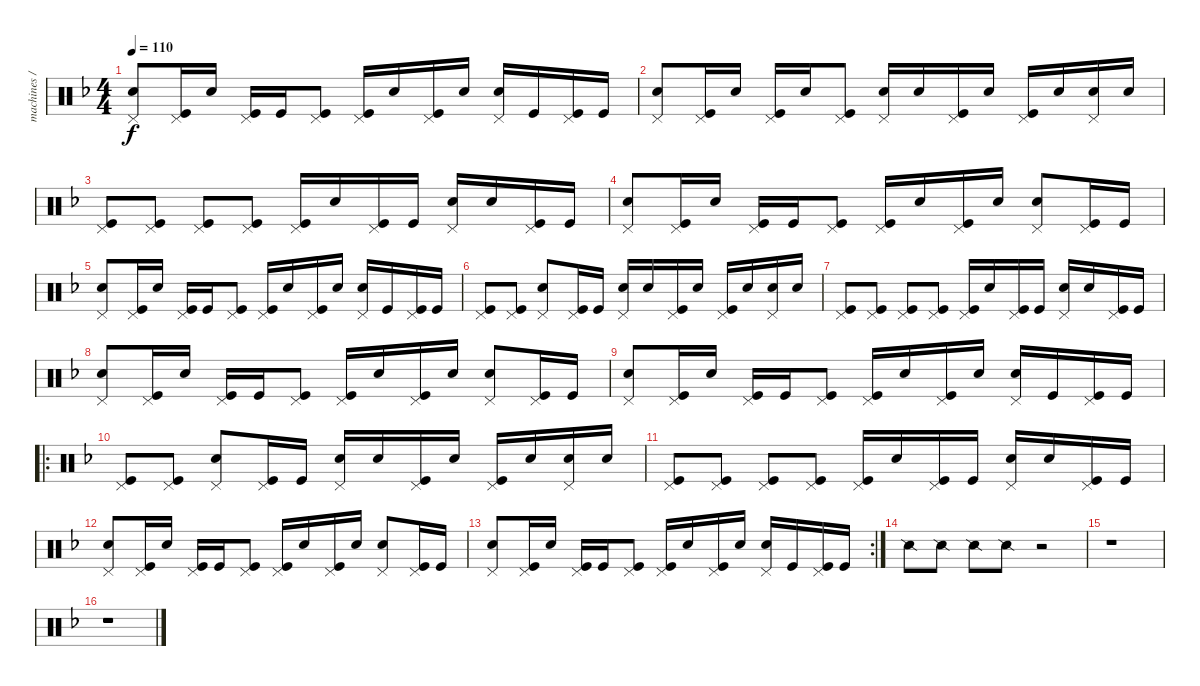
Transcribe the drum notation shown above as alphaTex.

\track ("machines / drum" "machines /") {instrument percussion}
\staff {score}
\articulation defaults
\ts (4 4)
\tempo 110
\clef neutral
\ks f
("Pedal Hi-Hat (hit)" "Electric Snare (hit)").8{dy f} ("Pedal Hi-Hat (hit)" "Kick (hit)").16 "Electric Snare (hit)".16 ("Pedal Hi-Hat (hit)" "Kick (hit)").16 "Kick (hit)".16 ("Pedal Hi-Hat (hit)" "Kick (hit)").8 ("Pedal Hi-Hat (hit)" "Kick (hit)").16 "Electric Snare (hit)".16 ("Pedal Hi-Hat (hit)" "Kick (hit)").16 "Electric Snare (hit)".16 ("Pedal Hi-Hat (hit)" "Electric Snare (hit)").16 "Kick (hit)".16 ("Pedal Hi-Hat (hit)" "Kick (hit)").16 "Kick (hit)".16 |
("Pedal Hi-Hat (hit)" "Electric Snare (hit)").8 ("Pedal Hi-Hat (hit)" "Kick (hit)").16 "Electric Snare (hit)".16 ("Pedal Hi-Hat (hit)" "Kick (hit)").16 "Electric Snare (hit)".16 ("Pedal Hi-Hat (hit)" "Kick (hit)").8 ("Pedal Hi-Hat (hit)" "Electric Snare (hit)").16 "Electric Snare (hit)".16 ("Pedal Hi-Hat (hit)" "Kick (hit)").16 "Electric Snare (hit)".16 ("Pedal Hi-Hat (hit)" "Kick (hit)").16 "Electric Snare (hit)".16 ("Pedal Hi-Hat (hit)" "Electric Snare (hit)").16 "Electric Snare (hit)".16 |
("Pedal Hi-Hat (hit)" "Kick (hit)").8 ("Pedal Hi-Hat (hit)" "Kick (hit)").8 ("Pedal Hi-Hat (hit)" "Kick (hit)").8 ("Pedal Hi-Hat (hit)" "Kick (hit)").8 ("Pedal Hi-Hat (hit)" "Kick (hit)").16 "Electric Snare (hit)".16 ("Pedal Hi-Hat (hit)" "Kick (hit)").16 "Kick (hit)".16 ("Pedal Hi-Hat (hit)" "Electric Snare (hit)").16 "Electric Snare (hit)".16 ("Pedal Hi-Hat (hit)" "Kick (hit)").16 "Kick (hit)".16 |
("Pedal Hi-Hat (hit)" "Electric Snare (hit)").8 ("Pedal Hi-Hat (hit)" "Kick (hit)").16 "Electric Snare (hit)".16 ("Pedal Hi-Hat (hit)" "Kick (hit)").16 "Kick (hit)".16 ("Pedal Hi-Hat (hit)" "Kick (hit)").8 ("Pedal Hi-Hat (hit)" "Kick (hit)").16 "Electric Snare (hit)".16 ("Pedal Hi-Hat (hit)" "Kick (hit)").16 "Electric Snare (hit)".16 ("Pedal Hi-Hat (hit)" "Electric Snare (hit)").8 ("Pedal Hi-Hat (hit)" "Kick (hit)").16 "Kick (hit)".16 |
("Pedal Hi-Hat (hit)" "Electric Snare (hit)").8 ("Pedal Hi-Hat (hit)" "Kick (hit)").16 "Electric Snare (hit)".16 ("Pedal Hi-Hat (hit)" "Kick (hit)").16 "Kick (hit)".16 ("Pedal Hi-Hat (hit)" "Kick (hit)").8 ("Pedal Hi-Hat (hit)" "Kick (hit)").16 "Electric Snare (hit)".16 ("Pedal Hi-Hat (hit)" "Kick (hit)").16 "Electric Snare (hit)".16 ("Pedal Hi-Hat (hit)" "Electric Snare (hit)").16 "Kick (hit)".16 ("Pedal Hi-Hat (hit)" "Kick (hit)").16 "Kick (hit)".16 |
("Pedal Hi-Hat (hit)" "Kick (hit)").8 ("Pedal Hi-Hat (hit)" "Kick (hit)").8 ("Pedal Hi-Hat (hit)" "Electric Snare (hit)").8 ("Pedal Hi-Hat (hit)" "Kick (hit)").16 "Kick (hit)".16 ("Pedal Hi-Hat (hit)" "Electric Snare (hit)").16 "Electric Snare (hit)".16 ("Pedal Hi-Hat (hit)" "Kick (hit)").16 "Electric Snare (hit)".16 ("Pedal Hi-Hat (hit)" "Kick (hit)").16 "Electric Snare (hit)".16 ("Pedal Hi-Hat (hit)" "Electric Snare (hit)").16 "Electric Snare (hit)".16 |
("Pedal Hi-Hat (hit)" "Kick (hit)").8 ("Pedal Hi-Hat (hit)" "Kick (hit)").8 ("Pedal Hi-Hat (hit)" "Kick (hit)").8 ("Pedal Hi-Hat (hit)" "Kick (hit)").8 ("Pedal Hi-Hat (hit)" "Kick (hit)").16 "Electric Snare (hit)".16 ("Pedal Hi-Hat (hit)" "Kick (hit)").16 "Kick (hit)".16 ("Pedal Hi-Hat (hit)" "Electric Snare (hit)").16 "Electric Snare (hit)".16 ("Pedal Hi-Hat (hit)" "Kick (hit)").16 "Kick (hit)".16 |
("Pedal Hi-Hat (hit)" "Electric Snare (hit)").8 ("Pedal Hi-Hat (hit)" "Kick (hit)").16 "Electric Snare (hit)".16 ("Pedal Hi-Hat (hit)" "Kick (hit)").16 "Kick (hit)".16 ("Pedal Hi-Hat (hit)" "Kick (hit)").8 ("Pedal Hi-Hat (hit)" "Kick (hit)").16 "Electric Snare (hit)".16 ("Pedal Hi-Hat (hit)" "Kick (hit)").16 "Electric Snare (hit)".16 ("Pedal Hi-Hat (hit)" "Electric Snare (hit)").8 ("Pedal Hi-Hat (hit)" "Kick (hit)").16 "Kick (hit)".16 |
("Pedal Hi-Hat (hit)" "Electric Snare (hit)").8 ("Pedal Hi-Hat (hit)" "Kick (hit)").16 "Electric Snare (hit)".16 ("Pedal Hi-Hat (hit)" "Kick (hit)").16 "Kick (hit)".16 ("Pedal Hi-Hat (hit)" "Kick (hit)").8 ("Pedal Hi-Hat (hit)" "Kick (hit)").16 "Electric Snare (hit)".16 ("Pedal Hi-Hat (hit)" "Kick (hit)").16 "Electric Snare (hit)".16 ("Pedal Hi-Hat (hit)" "Electric Snare (hit)").16 "Kick (hit)".16 ("Pedal Hi-Hat (hit)" "Kick (hit)").16 "Kick (hit)".16 |
\ro
("Pedal Hi-Hat (hit)" "Kick (hit)").8 ("Pedal Hi-Hat (hit)" "Kick (hit)").8 ("Pedal Hi-Hat (hit)" "Electric Snare (hit)").8 ("Pedal Hi-Hat (hit)" "Kick (hit)").16 "Kick (hit)".16 ("Pedal Hi-Hat (hit)" "Electric Snare (hit)").16 "Electric Snare (hit)".16 ("Pedal Hi-Hat (hit)" "Kick (hit)").16 "Electric Snare (hit)".16 ("Pedal Hi-Hat (hit)" "Kick (hit)").16 "Electric Snare (hit)".16 ("Pedal Hi-Hat (hit)" "Electric Snare (hit)").16 "Electric Snare (hit)".16 |
("Pedal Hi-Hat (hit)" "Kick (hit)").8 ("Pedal Hi-Hat (hit)" "Kick (hit)").8 ("Pedal Hi-Hat (hit)" "Kick (hit)").8 ("Pedal Hi-Hat (hit)" "Kick (hit)").8 ("Pedal Hi-Hat (hit)" "Kick (hit)").16 "Electric Snare (hit)".16 ("Pedal Hi-Hat (hit)" "Kick (hit)").16 "Kick (hit)".16 ("Pedal Hi-Hat (hit)" "Electric Snare (hit)").16 "Electric Snare (hit)".16 ("Pedal Hi-Hat (hit)" "Kick (hit)").16 "Kick (hit)".16 |
("Pedal Hi-Hat (hit)" "Electric Snare (hit)").8 ("Pedal Hi-Hat (hit)" "Kick (hit)").16 "Electric Snare (hit)".16 ("Pedal Hi-Hat (hit)" "Kick (hit)").16 "Kick (hit)".16 ("Pedal Hi-Hat (hit)" "Kick (hit)").8 ("Pedal Hi-Hat (hit)" "Kick (hit)").16 "Electric Snare (hit)".16 ("Pedal Hi-Hat (hit)" "Kick (hit)").16 "Electric Snare (hit)".16 ("Pedal Hi-Hat (hit)" "Electric Snare (hit)").8 ("Pedal Hi-Hat (hit)" "Kick (hit)").16 "Kick (hit)".16 |
\rc 2
("Pedal Hi-Hat (hit)" "Electric Snare (hit)").8 ("Pedal Hi-Hat (hit)" "Kick (hit)").16 "Electric Snare (hit)".16 ("Pedal Hi-Hat (hit)" "Kick (hit)").16 "Kick (hit)".16 ("Pedal Hi-Hat (hit)" "Kick (hit)").8 ("Pedal Hi-Hat (hit)" "Kick (hit)").16 "Electric Snare (hit)".16 ("Pedal Hi-Hat (hit)" "Kick (hit)").16 "Electric Snare (hit)".16 ("Pedal Hi-Hat (hit)" "Electric Snare (hit)").16 "Kick (hit)".16 ("Pedal Hi-Hat (hit)" "Kick (hit)").16 "Kick (hit)".16 |
"Snare (side stick) 2".8 "Snare (side stick) 2".8 "Snare (side stick) 2".8 "Snare (side stick) 2".8 r.2 |
r.1 |
r.1
